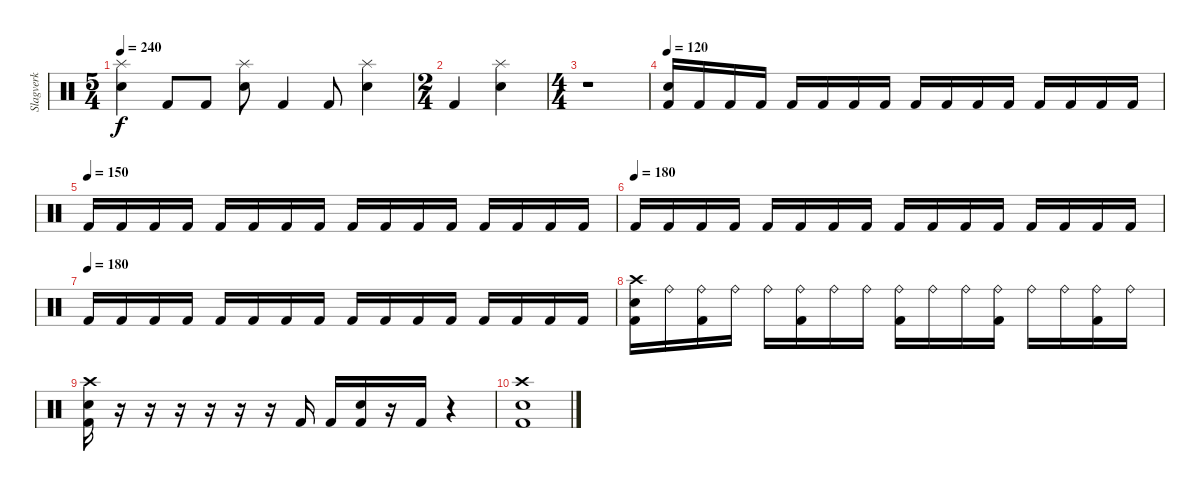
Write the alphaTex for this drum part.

\track ("Slagverk" "Slagverk") {instrument percussion}
\staff {score}
\articulation defaults
\ts (5 4)
\tempo 240
\clef neutral
\ks c
("Splash (hit)" "Electric Snare (hit)").4{dy f} "Kick (hit) 2".8 "Kick (hit) 2".8 ("Splash (hit)" "Electric Snare (hit)").8 "Kick (hit) 2".4 "Kick (hit) 2".8 ("Splash (hit)" "Electric Snare (hit)").4 |
\ts (2 4)
"Kick (hit) 2".4 ("Splash (hit)" "Electric Snare (hit)").4 |
\ts (4 4)
r.1 |
\tempo 120
("Electric Snare (hit)" "Kick (hit) 2").16 "Kick (hit) 2".16 "Kick (hit) 2".16 "Kick (hit) 2".16 "Kick (hit) 2".16 "Kick (hit) 2".16 "Kick (hit) 2".16 "Kick (hit) 2".16 "Kick (hit) 2".16 "Kick (hit) 2".16 "Kick (hit) 2".16 "Kick (hit) 2".16 "Kick (hit) 2".16 "Kick (hit) 2".16 "Kick (hit) 2".16 "Kick (hit) 2".16 |
\tempo (150)
"Kick (hit) 2".16 "Kick (hit) 2".16 "Kick (hit) 2".16 "Kick (hit) 2".16 "Kick (hit) 2".16 "Kick (hit) 2".16 "Kick (hit) 2".16 "Kick (hit) 2".16 "Kick (hit) 2".16 "Kick (hit) 2".16 "Kick (hit) 2".16 "Kick (hit) 2".16 "Kick (hit) 2".16 "Kick (hit) 2".16 "Kick (hit) 2".16 "Kick (hit) 2".16 |
\tempo (180)
"Kick (hit) 2".16 "Kick (hit) 2".16 "Kick (hit) 2".16 "Kick (hit) 2".16 "Kick (hit) 2".16 "Kick (hit) 2".16 "Kick (hit) 2".16 "Kick (hit) 2".16 "Kick (hit) 2".16 "Kick (hit) 2".16 "Kick (hit) 2".16 "Kick (hit) 2".16 "Kick (hit) 2".16 "Kick (hit) 2".16 "Kick (hit) 2".16 "Kick (hit) 2".16 |
\tempo (180)
"Kick (hit) 2".16 "Kick (hit) 2".16 "Kick (hit) 2".16 "Kick (hit) 2".16 "Kick (hit) 2".16 "Kick (hit) 2".16 "Kick (hit) 2".16 "Kick (hit) 2".16 "Kick (hit) 2".16 "Kick (hit) 2".16 "Kick (hit) 2".16 "Kick (hit) 2".16 "Kick (hit) 2".16 "Kick (hit) 2".16 "Kick (hit) 2".16 "Kick (hit) 2".16 |
("Crash high (hit)" "Electric Snare (hit)" "Kick (hit) 2").16 "Ride (bell)".16 ("Ride (bell)" "Kick (hit) 2").16 "Ride (bell)".16 "Ride (bell)".16 ("Ride (bell)" "Kick (hit) 2").16 "Ride (bell)".16 "Ride (bell)".16 ("Ride (bell)" "Kick (hit) 2").16 "Ride (bell)".16 "Ride (bell)".16 ("Ride (bell)" "Kick (hit) 2").16 "Ride (bell)".16 "Ride (bell)".16 ("Ride (bell)" "Kick (hit) 2").16 "Ride (bell)".16 |
("Crash high (hit)" "Electric Snare (hit)" "Kick (hit) 2").16 r.16 r.16 r.16 r.16 r.16 r.16 "Kick (hit) 2".16 "Kick (hit) 2".16 ("Electric Snare (hit)" "Kick (hit) 2").16 r.16 "Kick (hit) 2".16 r.4 |
("Crash high (hit)" "Electric Snare (hit)" "Kick (hit) 2").1
